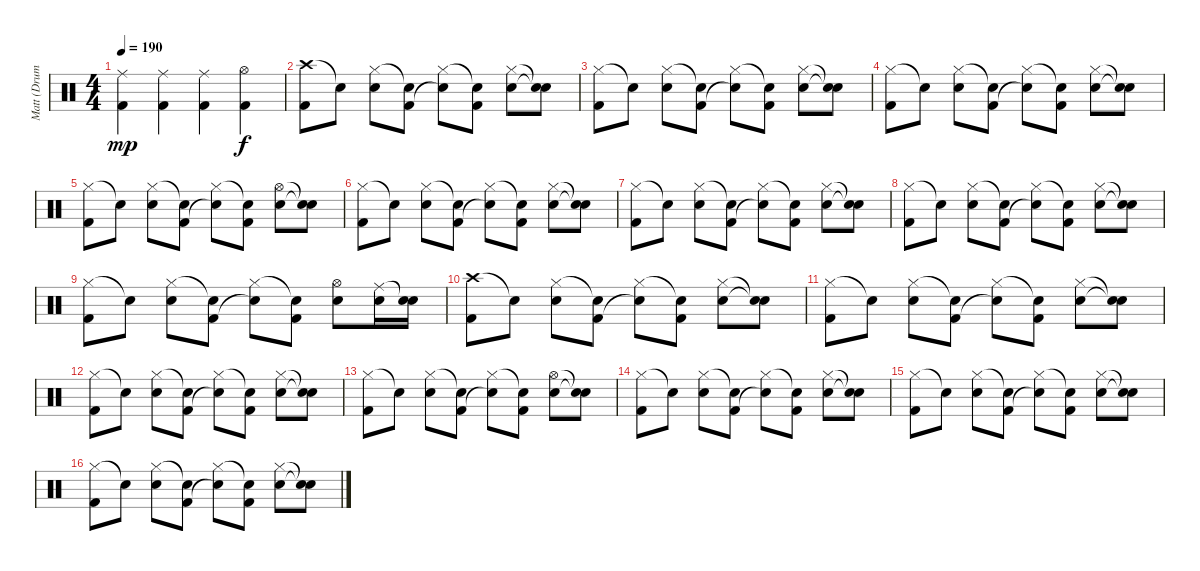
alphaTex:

\track ("Matt (Drums)" "Matt (Drum") {instrument percussion}
\staff {score}
\articulation defaults
\ts (4 4)
\tempo 190
\clef neutral
\ks c
("Ride (middle)" "Kick (hit) 2").4{dy mp} ("Ride (middle)" "Kick (hit) 2").4 ("Ride (middle)" "Kick (hit) 2").4 ("Hi-Hat (open)" "Kick (hit) 2").4{dy f} |
("Crash high (hit)" "Kick (hit) 2").8 "Snare (hit)"{t}.8 ("Hi-Hat (closed)" "Snare (hit) 2").8 ("Snare (hit)"{t} "Kick (hit) 2").8 ("Hi-Hat (closed)" "Snare (hit)"{t}).8 ("Snare (hit)"{t} "Kick (hit) 2").8 ("Hi-Hat (closed)" "Snare (hit) 2").8 ("Snare (hit)"{t} "Snare (hit)"{t}).8 |
("Hi-Hat (closed)" "Kick (hit) 2").8 "Snare (hit)"{t}.8 ("Hi-Hat (closed)" "Snare (hit) 2").8 ("Snare (hit)"{t} "Kick (hit) 2").8 ("Hi-Hat (closed)" "Snare (hit)"{t}).8 ("Snare (hit)"{t} "Kick (hit) 2").8 ("Hi-Hat (closed)" "Snare (hit) 2").8 ("Snare (hit)"{t} "Snare (hit)"{t}).8 |
("Hi-Hat (closed)" "Kick (hit) 2").8 "Snare (hit)"{t}.8 ("Hi-Hat (closed)" "Snare (hit) 2").8 ("Snare (hit)"{t} "Kick (hit) 2").8 ("Hi-Hat (closed)" "Snare (hit)"{t}).8 ("Snare (hit)"{t} "Kick (hit) 2").8 ("Hi-Hat (closed)" "Snare (hit) 2").8 ("Snare (hit)"{t} "Snare (hit)"{t}).8 |
("Hi-Hat (closed)" "Kick (hit) 2").8 "Snare (hit)"{t}.8 ("Hi-Hat (closed)" "Snare (hit) 2").8 ("Snare (hit)"{t} "Kick (hit) 2").8 ("Hi-Hat (closed)" "Snare (hit)"{t}).8 ("Snare (hit)"{t} "Kick (hit) 2").8 ("Hi-Hat (open)" "Snare (hit) 2").8 ("Snare (hit)"{t} "Snare (hit)"{t}).8 |
("Hi-Hat (closed)" "Kick (hit) 2").8 "Snare (hit)"{t}.8 ("Hi-Hat (closed)" "Snare (hit) 2").8 ("Snare (hit)"{t} "Kick (hit) 2").8 ("Hi-Hat (closed)" "Snare (hit)"{t}).8 ("Snare (hit)"{t} "Kick (hit) 2").8 ("Hi-Hat (closed)" "Snare (hit) 2").8 ("Snare (hit)"{t} "Snare (hit)"{t}).8 |
("Hi-Hat (closed)" "Kick (hit) 2").8 "Snare (hit)"{t}.8 ("Hi-Hat (closed)" "Snare (hit) 2").8 ("Snare (hit)"{t} "Kick (hit) 2").8 ("Hi-Hat (closed)" "Snare (hit)"{t}).8 ("Snare (hit)"{t} "Kick (hit) 2").8 ("Hi-Hat (closed)" "Snare (hit) 2").8 ("Snare (hit)"{t} "Snare (hit)"{t}).8 |
("Hi-Hat (closed)" "Kick (hit) 2").8 "Snare (hit)"{t}.8 ("Hi-Hat (closed)" "Snare (hit) 2").8 ("Snare (hit)"{t} "Kick (hit) 2").8 ("Hi-Hat (closed)" "Snare (hit)"{t}).8 ("Snare (hit)"{t} "Kick (hit) 2").8 ("Hi-Hat (closed)" "Snare (hit) 2").8 ("Snare (hit)"{t} "Snare (hit)"{t}).8 |
("Hi-Hat (closed)" "Kick (hit) 2").8 "Snare (hit)"{t}.8 ("Hi-Hat (closed)" "Snare (hit) 2").8 ("Snare (hit)"{t} "Kick (hit) 2").8 ("Hi-Hat (closed)" "Snare (hit)"{t}).8 ("Snare (hit)"{t} "Kick (hit) 2").8 ("Hi-Hat (open)" "Snare (hit) 2").8 ("Ride (middle)" "Snare (hit) 2").16 ("Snare (hit)"{t} "Snare (hit) 2").16 |
("Crash high (hit)" "Kick (hit) 2").8 "Snare (hit)"{t}.8 ("Hi-Hat (closed)" "Snare (hit) 2").8 ("Snare (hit)"{t} "Kick (hit) 2").8 ("Hi-Hat (closed)" "Snare (hit)"{t}).8 ("Snare (hit)"{t} "Kick (hit) 2").8 ("Hi-Hat (closed)" "Snare (hit) 2").8 ("Snare (hit)"{t} "Snare (hit)"{t}).8 |
("Hi-Hat (closed)" "Kick (hit) 2").8 "Snare (hit)"{t}.8 ("Hi-Hat (closed)" "Snare (hit) 2").8 ("Snare (hit)"{t} "Kick (hit) 2").8 ("Hi-Hat (closed)" "Snare (hit)"{t}).8 ("Snare (hit)"{t} "Kick (hit) 2").8 ("Hi-Hat (closed)" "Snare (hit) 2").8 ("Snare (hit)"{t} "Snare (hit)"{t}).8 |
("Hi-Hat (closed)" "Kick (hit) 2").8 "Snare (hit)"{t}.8 ("Hi-Hat (closed)" "Snare (hit) 2").8 ("Snare (hit)"{t} "Kick (hit) 2").8 ("Hi-Hat (closed)" "Snare (hit)"{t}).8 ("Snare (hit)"{t} "Kick (hit) 2").8 ("Hi-Hat (closed)" "Snare (hit) 2").8 ("Snare (hit)"{t} "Snare (hit)"{t}).8 |
("Hi-Hat (closed)" "Kick (hit) 2").8 "Snare (hit)"{t}.8 ("Hi-Hat (closed)" "Snare (hit) 2").8 ("Snare (hit)"{t} "Kick (hit) 2").8 ("Hi-Hat (closed)" "Snare (hit)"{t}).8 ("Snare (hit)"{t} "Kick (hit) 2").8 ("Hi-Hat (open)" "Snare (hit) 2").8 ("Snare (hit)"{t} "Snare (hit)"{t}).8 |
("Hi-Hat (closed)" "Kick (hit) 2").8 "Snare (hit)"{t}.8 ("Hi-Hat (closed)" "Snare (hit) 2").8 ("Snare (hit)"{t} "Kick (hit) 2").8 ("Hi-Hat (closed)" "Snare (hit)"{t}).8 ("Snare (hit)"{t} "Kick (hit) 2").8 ("Hi-Hat (closed)" "Snare (hit) 2").8 ("Snare (hit)"{t} "Snare (hit)"{t}).8 |
("Hi-Hat (closed)" "Kick (hit) 2").8 "Snare (hit)"{t}.8 ("Hi-Hat (closed)" "Snare (hit) 2").8 ("Snare (hit)"{t} "Kick (hit) 2").8 ("Hi-Hat (closed)" "Snare (hit)"{t}).8 ("Snare (hit)"{t} "Kick (hit) 2").8 ("Hi-Hat (closed)" "Snare (hit) 2").8 ("Snare (hit)"{t} "Snare (hit)"{t}).8 |
("Hi-Hat (closed)" "Kick (hit) 2").8 "Snare (hit)"{t}.8 ("Hi-Hat (closed)" "Snare (hit) 2").8 ("Snare (hit)"{t} "Kick (hit) 2").8 ("Hi-Hat (closed)" "Snare (hit)"{t}).8 ("Snare (hit)"{t} "Kick (hit) 2").8 ("Hi-Hat (closed)" "Snare (hit) 2").8 ("Snare (hit)"{t} "Snare (hit)"{t}).8
